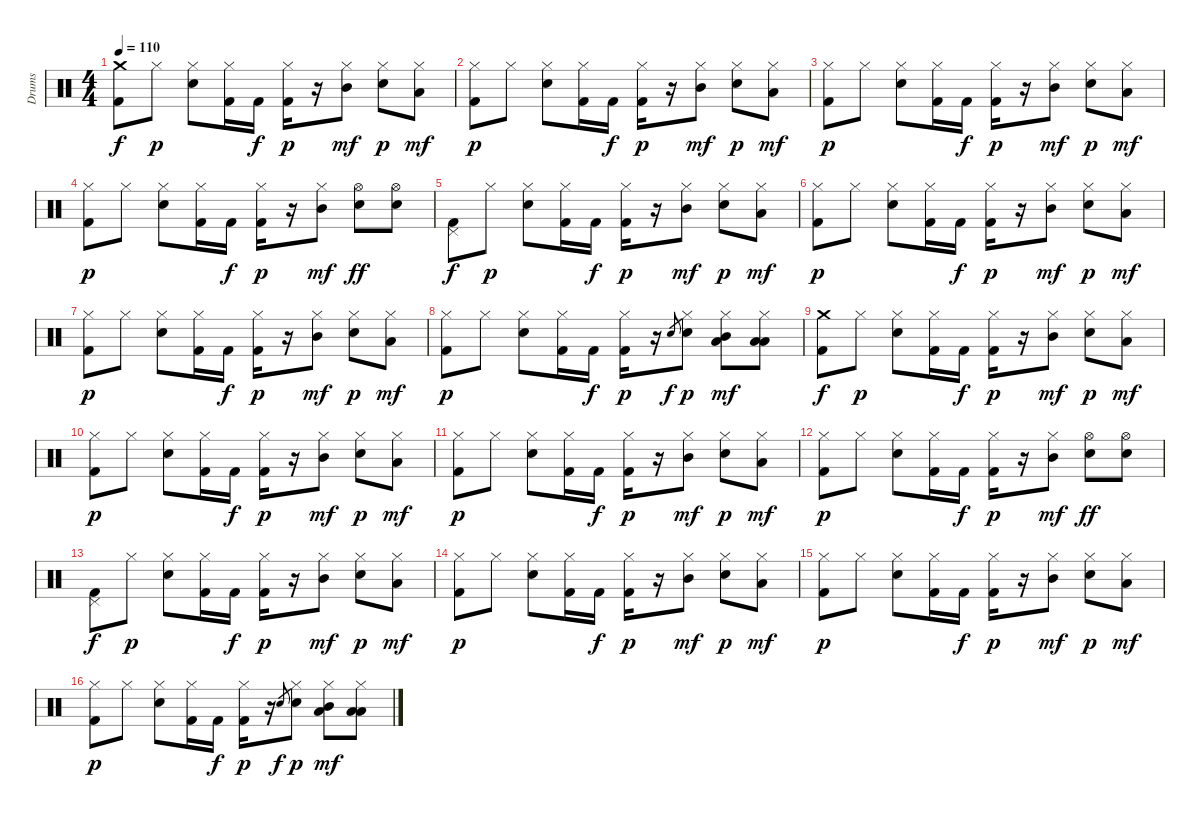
\track ("Drums" "Drums") {instrument percussion}
\staff {score}
\articulation defaults
\ts (4 4)
\tempo 110
\clef neutral
\ks c
("Crash medium (hit)" "Kick (hit) 2").8{dy f} "Hi-Hat (closed)".8{dy p} ("Hi-Hat (closed)" "Electric Snare (hit)").8 ("Hi-Hat (closed)" "Kick (hit) 2").16 "Kick (hit) 2".16{dy f} ("Hi-Hat (closed)" "Kick (hit) 2").16{dy p} r.16 ("Hi-Hat (closed)" "Mid Tom (hit)").8{dy mf} ("Hi-Hat (closed)" "Electric Snare (hit)").8{dy p} ("Hi-Hat (closed)" "Low Tom (hit)").8{dy mf} |
("Hi-Hat (closed)" "Kick (hit) 2").8{dy p} "Hi-Hat (closed)".8 ("Hi-Hat (closed)" "Electric Snare (hit)").8 ("Hi-Hat (closed)" "Kick (hit) 2").16 "Kick (hit) 2".16{dy f} ("Hi-Hat (closed)" "Kick (hit) 2").16{dy p} r.16 ("Hi-Hat (closed)" "Mid Tom (hit)").8{dy mf} ("Hi-Hat (closed)" "Electric Snare (hit)").8{dy p} ("Hi-Hat (closed)" "Low Tom (hit)").8{dy mf} |
("Hi-Hat (closed)" "Kick (hit) 2").8{dy p} "Hi-Hat (closed)".8 ("Hi-Hat (closed)" "Electric Snare (hit)").8 ("Hi-Hat (closed)" "Kick (hit) 2").16 "Kick (hit) 2".16{dy f} ("Hi-Hat (closed)" "Kick (hit) 2").16{dy p} r.16 ("Hi-Hat (closed)" "Mid Tom (hit)").8{dy mf} ("Hi-Hat (closed)" "Electric Snare (hit)").8{dy p} ("Hi-Hat (closed)" "Low Tom (hit)").8{dy mf} |
("Hi-Hat (closed)" "Kick (hit) 2").8{dy p} "Hi-Hat (closed)".8 ("Hi-Hat (closed)" "Electric Snare (hit)").8 ("Hi-Hat (closed)" "Kick (hit) 2").16 "Kick (hit) 2".16{dy f} ("Hi-Hat (closed)" "Kick (hit) 2").16{dy p} r.16 ("Hi-Hat (closed)" "Mid Tom (hit)").8{dy mf} ("Hi-Hat (open)" "Electric Snare (hit)").8{dy ff} ("Hi-Hat (open)" "Electric Snare (hit)").8 |
("Pedal Hi-Hat (hit)" "Kick (hit) 2").8{dy f} "Hi-Hat (closed)".8{dy p} ("Hi-Hat (closed)" "Electric Snare (hit)").8 ("Hi-Hat (closed)" "Kick (hit) 2").16 "Kick (hit) 2".16{dy f} ("Hi-Hat (closed)" "Kick (hit) 2").16{dy p} r.16 ("Hi-Hat (closed)" "Mid Tom (hit)").8{dy mf} ("Hi-Hat (closed)" "Electric Snare (hit)").8{dy p} ("Hi-Hat (closed)" "Low Tom (hit)").8{dy mf} |
("Hi-Hat (closed)" "Kick (hit) 2").8{dy p} "Hi-Hat (closed)".8 ("Hi-Hat (closed)" "Electric Snare (hit)").8 ("Hi-Hat (closed)" "Kick (hit) 2").16 "Kick (hit) 2".16{dy f} ("Hi-Hat (closed)" "Kick (hit) 2").16{dy p} r.16 ("Hi-Hat (closed)" "Mid Tom (hit)").8{dy mf} ("Hi-Hat (closed)" "Electric Snare (hit)").8{dy p} ("Hi-Hat (closed)" "Low Tom (hit)").8{dy mf} |
("Hi-Hat (closed)" "Kick (hit) 2").8{dy p} "Hi-Hat (closed)".8 ("Hi-Hat (closed)" "Electric Snare (hit)").8 ("Hi-Hat (closed)" "Kick (hit) 2").16 "Kick (hit) 2".16{dy f} ("Hi-Hat (closed)" "Kick (hit) 2").16{dy p} r.16 ("Hi-Hat (closed)" "Mid Tom (hit)").8{dy mf} ("Hi-Hat (closed)" "Electric Snare (hit)").8{dy p} ("Hi-Hat (closed)" "Low Tom (hit)").8{dy mf} |
("Hi-Hat (closed)" "Kick (hit) 2").8{dy p} "Hi-Hat (closed)".8 ("Hi-Hat (closed)" "Electric Snare (hit)").8 ("Hi-Hat (closed)" "Kick (hit) 2").16 "Kick (hit) 2".16{dy f} ("Hi-Hat (closed)" "Kick (hit) 2").16{dy p} r.16 "Electric Snare (hit)".8{gr dy f} ("Hi-Hat (closed)" "Electric Snare (hit)").8{dy p} ("Hi-Hat (closed)" "Mid Tom (hit)" "Low Floor Tom (hit)").8{dy mf} ("Hi-Hat (closed)" "Low Tom (hit)" "Low Floor Tom (hit)").8 |
("Crash medium (hit)" "Kick (hit) 2").8{dy f} "Hi-Hat (closed)".8{dy p} ("Hi-Hat (closed)" "Electric Snare (hit)").8 ("Hi-Hat (closed)" "Kick (hit) 2").16 "Kick (hit) 2".16{dy f} ("Hi-Hat (closed)" "Kick (hit) 2").16{dy p} r.16 ("Hi-Hat (closed)" "Mid Tom (hit)").8{dy mf} ("Hi-Hat (closed)" "Electric Snare (hit)").8{dy p} ("Hi-Hat (closed)" "Low Tom (hit)").8{dy mf} |
("Hi-Hat (closed)" "Kick (hit) 2").8{dy p} "Hi-Hat (closed)".8 ("Hi-Hat (closed)" "Electric Snare (hit)").8 ("Hi-Hat (closed)" "Kick (hit) 2").16 "Kick (hit) 2".16{dy f} ("Hi-Hat (closed)" "Kick (hit) 2").16{dy p} r.16 ("Hi-Hat (closed)" "Mid Tom (hit)").8{dy mf} ("Hi-Hat (closed)" "Electric Snare (hit)").8{dy p} ("Hi-Hat (closed)" "Low Tom (hit)").8{dy mf} |
("Hi-Hat (closed)" "Kick (hit) 2").8{dy p} "Hi-Hat (closed)".8 ("Hi-Hat (closed)" "Electric Snare (hit)").8 ("Hi-Hat (closed)" "Kick (hit) 2").16 "Kick (hit) 2".16{dy f} ("Hi-Hat (closed)" "Kick (hit) 2").16{dy p} r.16 ("Hi-Hat (closed)" "Mid Tom (hit)").8{dy mf} ("Hi-Hat (closed)" "Electric Snare (hit)").8{dy p} ("Hi-Hat (closed)" "Low Tom (hit)").8{dy mf} |
("Hi-Hat (closed)" "Kick (hit) 2").8{dy p} "Hi-Hat (closed)".8 ("Hi-Hat (closed)" "Electric Snare (hit)").8 ("Hi-Hat (closed)" "Kick (hit) 2").16 "Kick (hit) 2".16{dy f} ("Hi-Hat (closed)" "Kick (hit) 2").16{dy p} r.16 ("Hi-Hat (closed)" "Mid Tom (hit)").8{dy mf} ("Hi-Hat (open)" "Electric Snare (hit)").8{dy ff} ("Hi-Hat (open)" "Electric Snare (hit)").8 |
("Pedal Hi-Hat (hit)" "Kick (hit) 2").8{dy f} "Hi-Hat (closed)".8{dy p} ("Hi-Hat (closed)" "Electric Snare (hit)").8 ("Hi-Hat (closed)" "Kick (hit) 2").16 "Kick (hit) 2".16{dy f} ("Hi-Hat (closed)" "Kick (hit) 2").16{dy p} r.16 ("Hi-Hat (closed)" "Mid Tom (hit)").8{dy mf} ("Hi-Hat (closed)" "Electric Snare (hit)").8{dy p} ("Hi-Hat (closed)" "Low Tom (hit)").8{dy mf} |
("Hi-Hat (closed)" "Kick (hit) 2").8{dy p} "Hi-Hat (closed)".8 ("Hi-Hat (closed)" "Electric Snare (hit)").8 ("Hi-Hat (closed)" "Kick (hit) 2").16 "Kick (hit) 2".16{dy f} ("Hi-Hat (closed)" "Kick (hit) 2").16{dy p} r.16 ("Hi-Hat (closed)" "Mid Tom (hit)").8{dy mf} ("Hi-Hat (closed)" "Electric Snare (hit)").8{dy p} ("Hi-Hat (closed)" "Low Tom (hit)").8{dy mf} |
("Hi-Hat (closed)" "Kick (hit) 2").8{dy p} "Hi-Hat (closed)".8 ("Hi-Hat (closed)" "Electric Snare (hit)").8 ("Hi-Hat (closed)" "Kick (hit) 2").16 "Kick (hit) 2".16{dy f} ("Hi-Hat (closed)" "Kick (hit) 2").16{dy p} r.16 ("Hi-Hat (closed)" "Mid Tom (hit)").8{dy mf} ("Hi-Hat (closed)" "Electric Snare (hit)").8{dy p} ("Hi-Hat (closed)" "Low Tom (hit)").8{dy mf} |
("Hi-Hat (closed)" "Kick (hit) 2").8{dy p} "Hi-Hat (closed)".8 ("Hi-Hat (closed)" "Electric Snare (hit)").8 ("Hi-Hat (closed)" "Kick (hit) 2").16 "Kick (hit) 2".16{dy f} ("Hi-Hat (closed)" "Kick (hit) 2").16{dy p} r.16 "Electric Snare (hit)".8{gr dy f} ("Hi-Hat (closed)" "Electric Snare (hit)").8{dy p} ("Hi-Hat (closed)" "Mid Tom (hit)" "Low Floor Tom (hit)").8{dy mf} ("Hi-Hat (closed)" "Low Tom (hit)" "Low Floor Tom (hit)").8
